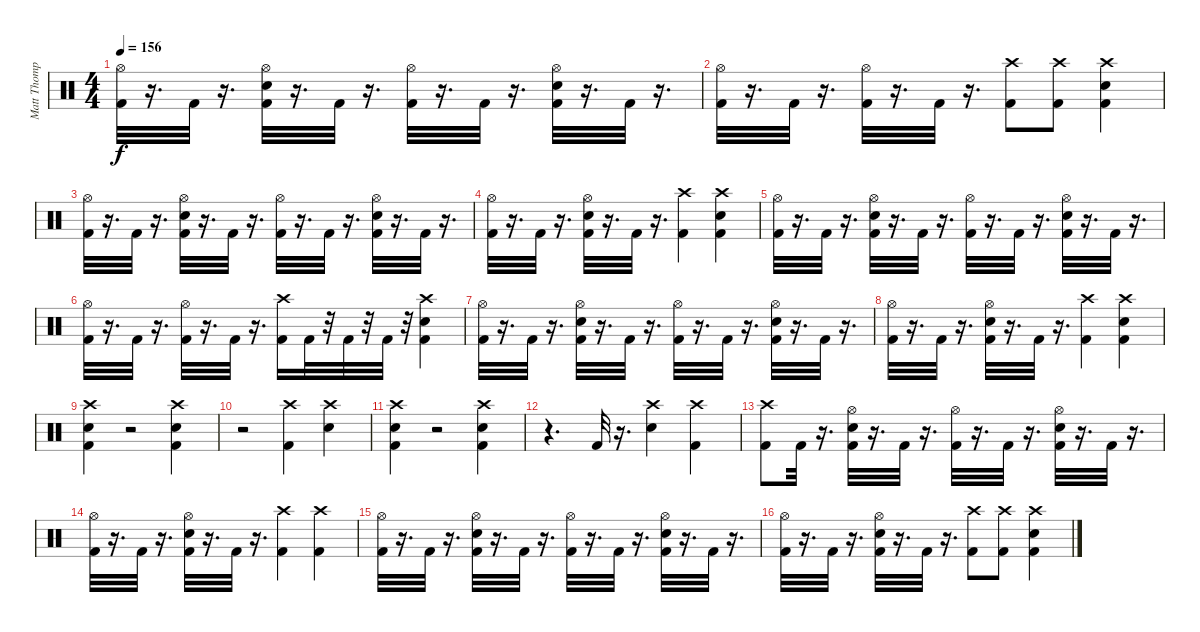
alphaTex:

\track ("Matt Thompson" "Matt Thomp") {instrument percussion}
\staff {score}
\articulation defaults
\ts (4 4)
\tempo 156
\clef neutral
\ks c
("Hi-Hat (open)" "Kick (hit) 2").32{dy f} r.16{d} "Kick (hit) 2".32 r.16{d} ("Hi-Hat (open)" "Snare (hit) 2" "Kick (hit) 2").32 r.16{d} "Kick (hit) 2".32 r.16{d} ("Hi-Hat (open)" "Kick (hit) 2").32 r.16{d} "Kick (hit) 2".32 r.16{d} ("Hi-Hat (open)" "Snare (hit) 2" "Kick (hit) 2").32 r.16{d} "Kick (hit) 2".32 r.16{d} |
("Hi-Hat (open)" "Kick (hit) 2").32 r.16{d} "Kick (hit) 2".32 r.16{d} ("Hi-Hat (open)" "Kick (hit) 2").32 r.16{d} "Kick (hit) 2".32 r.16{d} ("Crash high (hit)" "Kick (hit) 2").8 ("Crash high (hit)" "Kick (hit) 2").8 ("Crash high (hit)" "Snare (hit) 2" "Kick (hit) 2").4 |
("Hi-Hat (open)" "Kick (hit) 2").32 r.16{d} "Kick (hit) 2".32 r.16{d} ("Hi-Hat (open)" "Snare (hit) 2" "Kick (hit) 2").32 r.16{d} "Kick (hit) 2".32 r.16{d} ("Hi-Hat (open)" "Kick (hit) 2").32 r.16{d} "Kick (hit) 2".32 r.16{d} ("Hi-Hat (open)" "Snare (hit) 2" "Kick (hit) 2").32 r.16{d} "Kick (hit) 2".32 r.16{d} |
("Hi-Hat (open)" "Kick (hit) 2").32 r.16{d} "Kick (hit) 2".32 r.16{d} ("Hi-Hat (open)" "Snare (hit) 2" "Kick (hit) 2").32 r.16{d} "Kick (hit) 2".32 r.16{d} ("Crash high (hit)" "Kick (hit) 2").4 ("Snare (hit) 2" "Crash high (hit)" "Kick (hit) 2").4 |
("Hi-Hat (open)" "Kick (hit) 2").32 r.16{d} "Kick (hit) 2".32 r.16{d} ("Hi-Hat (open)" "Snare (hit) 2" "Kick (hit) 2").32 r.16{d} "Kick (hit) 2".32 r.16{d} ("Hi-Hat (open)" "Kick (hit) 2").32 r.16{d} "Kick (hit) 2".32 r.16{d} ("Hi-Hat (open)" "Snare (hit) 2" "Kick (hit) 2").32 r.16{d} "Kick (hit) 2".32 r.16{d} |
("Hi-Hat (open)" "Kick (hit) 2").32 r.16{d} "Kick (hit) 2".32 r.16{d} ("Hi-Hat (open)" "Kick (hit) 2").32 r.16{d} "Kick (hit) 2".32 r.16{d} ("Crash high (hit)" "Kick (hit) 2").16 "Kick (hit) 2".32 r.32 "Kick (hit) 2".32 r.32 "Kick (hit) 2".32 r.32 ("Crash high (hit)" "Snare (hit) 2" "Kick (hit) 2").4 |
("Hi-Hat (open)" "Kick (hit) 2").32 r.16{d} "Kick (hit) 2".32 r.16{d} ("Hi-Hat (open)" "Snare (hit) 2" "Kick (hit) 2").32 r.16{d} "Kick (hit) 2".32 r.16{d} ("Hi-Hat (open)" "Kick (hit) 2").32 r.16{d} "Kick (hit) 2".32 r.16{d} ("Hi-Hat (open)" "Snare (hit) 2" "Kick (hit) 2").32 r.16{d} "Kick (hit) 2".32 r.16{d} |
("Hi-Hat (open)" "Kick (hit) 2").32 r.16{d} "Kick (hit) 2".32 r.16{d} ("Hi-Hat (open)" "Snare (hit) 2" "Kick (hit) 2").32 r.16{d} "Kick (hit) 2".32 r.16{d} ("Crash high (hit)" "Kick (hit) 2").4 ("Snare (hit) 2" "Crash high (hit)" "Kick (hit) 2").4 |
("Crash high (hit)" "Snare (hit) 2" "Kick (hit) 2").4 r.2 ("Snare (hit) 2" "Kick (hit) 2" "Crash high (hit)").4 |
r.2 ("Crash high (hit)" "Kick (hit) 2").4 ("Crash high (hit)" "Snare (hit) 2").4 |
("Snare (hit) 2" "Kick (hit) 2" "Crash high (hit)").4 r.2 ("Snare (hit) 2" "Kick (hit) 2" "Crash high (hit)").4 |
r.4{d} "Kick (hit) 2".32 r.16{d} ("Snare (hit) 2" "Crash high (hit)").4 ("Kick (hit) 2" "Crash high (hit)").4 |
("Crash high (hit)" "Kick (hit) 2").8 "Kick (hit) 2".32 r.16{d} ("Hi-Hat (open)" "Snare (hit) 2" "Kick (hit) 2").32 r.16{d} "Kick (hit) 2".32 r.16{d} ("Hi-Hat (open)" "Kick (hit) 2").32 r.16{d} "Kick (hit) 2".32 r.16{d} ("Snare (hit) 2" "Hi-Hat (open)" "Kick (hit) 2").32 r.16{d} "Kick (hit) 2".32 r.16{d} |
("Hi-Hat (open)" "Kick (hit) 2").32 r.16{d} "Kick (hit) 2".32 r.16{d} ("Snare (hit) 2" "Hi-Hat (open)" "Kick (hit) 2").32 r.16{d} "Kick (hit) 2".32 r.16{d} ("Crash high (hit)" "Kick (hit) 2").4 ("Crash high (hit)" "Kick (hit) 2").4 |
("Hi-Hat (open)" "Kick (hit) 2").32 r.16{d} "Kick (hit) 2".32 r.16{d} ("Hi-Hat (open)" "Snare (hit) 2" "Kick (hit) 2").32 r.16{d} "Kick (hit) 2".32 r.16{d} ("Hi-Hat (open)" "Kick (hit) 2").32 r.16{d} "Kick (hit) 2".32 r.16{d} ("Hi-Hat (open)" "Snare (hit) 2" "Kick (hit) 2").32 r.16{d} "Kick (hit) 2".32 r.16{d} |
("Hi-Hat (open)" "Kick (hit) 2").32 r.16{d} "Kick (hit) 2".32 r.16{d} ("Hi-Hat (open)" "Snare (hit) 2" "Kick (hit) 2").32 r.16{d} "Kick (hit) 2".32 r.16{d} ("Crash high (hit)" "Kick (hit) 2").8 ("Crash high (hit)" "Kick (hit) 2").8 ("Snare (hit) 2" "Crash high (hit)" "Kick (hit) 2").4
